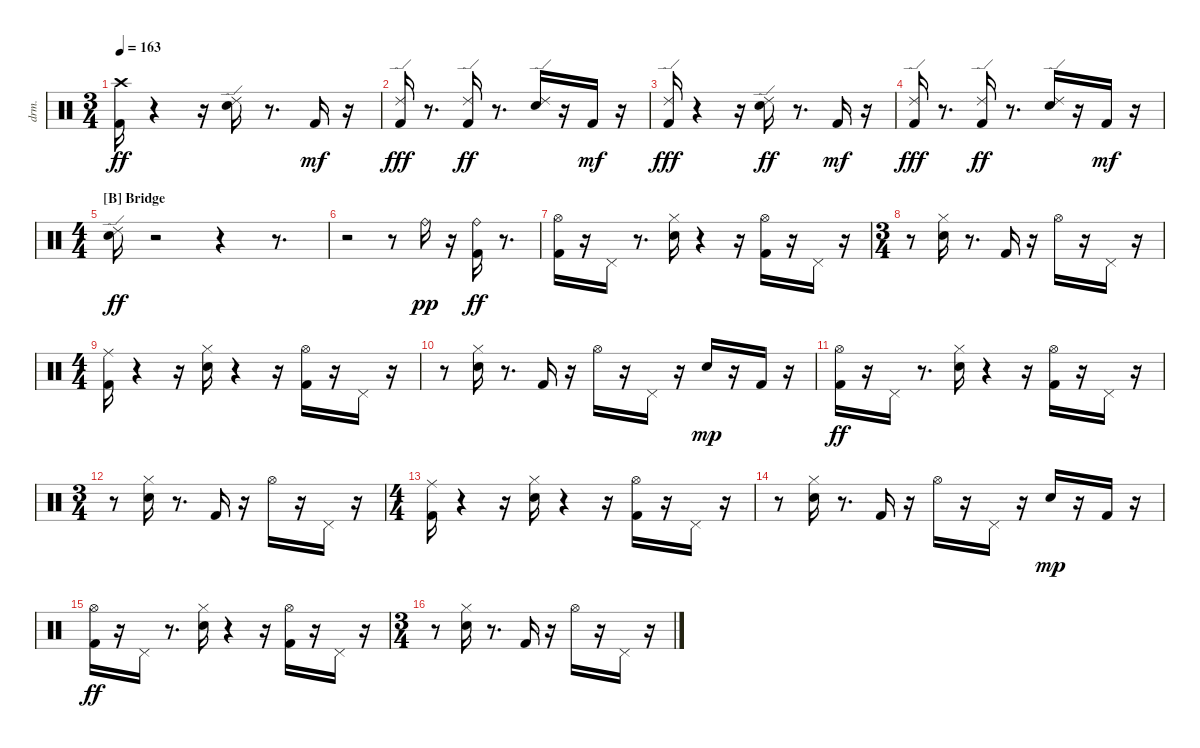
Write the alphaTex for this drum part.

\bracketExtendMode nobrackets
\track ("EZdrummer 3" "drm.") {instrument percussion}
\staff {score}
\articulation defaults
\ts (3 4)
\tempo 163
\clef neutral
\ks aminor
("Kick (hit) 2" "Crash high (hit)"{acc #}).16{dy ff beam Down} r.4{beam Down} r.16{beam Down} ("Snare (hit) 2" "Ride (edge) 2").16{beam Down} r.8{d beam Down} "Kick (hit) 2".16{dy mf beam Up} r.16{beam Down} |
("Kick (hit) 2" "Ride (edge) 2").16{dy fff beam Up} r.8{d beam Down} ("Kick (hit) 2" "Ride (edge) 2").16{dy ff beam Up} r.8{d beam Down} ("Snare (hit) 2" "Ride (edge) 2").16{beam Up} r.16{beam Up} "Kick (hit) 2".16{dy mf beam Up} r.16{beam Down} |
("Kick (hit) 2" "Ride (edge) 2").16{dy fff beam Up} r.4{beam Down} r.16{beam Down} ("Snare (hit) 2" "Ride (edge) 2").16{dy ff beam Down} r.8{d beam Down} "Kick (hit) 2".16{dy mf beam Up} r.16{beam Down} |
("Kick (hit) 2" "Ride (edge) 2").16{dy fff beam Up} r.8{d beam Down} ("Kick (hit) 2" "Ride (edge) 2").16{dy ff beam Up} r.8{d beam Down} ("Snare (hit) 2" "Ride (edge) 2").16{beam Up} r.16{beam Up} "Kick (hit) 2".16{dy mf beam Up} r.16{beam Down} |
\ts (4 4)
\section ("B" "Bridge")
("Snare (hit) 2" "Ride (edge) 2").16{dy ff beam Down} r.2{beam Down} r.4{beam Down} r.8{d beam Down} |
r.2{beam Down} r.8{beam Down} "Ride (bell)".16{dy pp beam Down} r.16{beam Down} ("Kick (hit) 2" "Ride (bell)").16{dy ff beam Down} r.8{d beam Down} |
("Kick (hit) 2" "Hi-Hat (open)"{acc #}).16{beam Down} r.16{beam Down} "Pedal Hi-Hat (hit)"{acc #}.16{beam Down} r.8{d beam Down} ("Snare (hit) 2" "Hi-Hat (closed)"{acc #}).16{beam Down} r.4{beam Down} r.16{beam Down} ("Kick (hit) 2" "Hi-Hat (open)"{acc #}).16{beam Down} r.16{beam Down} "Pedal Hi-Hat (hit)"{acc #}.16{beam Down} r.16{beam Down} |
\ts (3 4)
r.8{beam Down} ("Snare (hit) 2" "Hi-Hat (closed)"{acc #}).16{beam Down} r.8{d beam Down} "Kick (hit) 2".16{beam Up} r.16{beam Down} "Hi-Hat (open)"{acc #}.16{beam Down} r.16{beam Down} "Pedal Hi-Hat (hit)"{acc #}.16{beam Down} r.16{beam Down} |
\ts (4 4)
("Kick (hit) 2" "Ride (middle)"{acc #}).16{beam Down} r.4{beam Down} r.16{beam Down} ("Snare (hit) 2" "Hi-Hat (closed)"{acc #}).16{beam Down} r.4{beam Down} r.16{beam Down} ("Kick (hit) 2" "Hi-Hat (open)"{acc #}).16{beam Down} r.16{beam Down} "Pedal Hi-Hat (hit)"{acc #}.16{beam Down} r.16{beam Down} |
r.8{beam Down} ("Snare (hit) 2" "Hi-Hat (closed)"{acc #}).16{beam Down} r.8{d beam Down} "Kick (hit) 2".16{beam Up} r.16{beam Down} "Hi-Hat (open)"{acc #}.16{beam Down} r.16{beam Down} "Pedal Hi-Hat (hit)"{acc #}.16{beam Down} r.16{beam Down} "Snare (hit) 2".16{dy mp beam Up} r.16{beam Up} "Kick (hit) 2".16{beam Up} r.16{beam Down} |
("Kick (hit) 2" "Hi-Hat (open)"{acc #}).16{dy ff beam Down} r.16{beam Down} "Pedal Hi-Hat (hit)"{acc #}.16{beam Down} r.8{d beam Down} ("Snare (hit) 2" "Hi-Hat (closed)"{acc #}).16{beam Down} r.4{beam Down} r.16{beam Down} ("Kick (hit) 2" "Hi-Hat (open)"{acc #}).16{beam Down} r.16{beam Down} "Pedal Hi-Hat (hit)"{acc #}.16{beam Down} r.16{beam Down} |
\ts (3 4)
r.8{beam Down} ("Snare (hit) 2" "Hi-Hat (closed)"{acc #}).16{beam Down} r.8{d beam Down} "Kick (hit) 2".16{beam Up} r.16{beam Down} "Hi-Hat (open)"{acc #}.16{beam Down} r.16{beam Down} "Pedal Hi-Hat (hit)"{acc #}.16{beam Down} r.16{beam Down} |
\ts (4 4)
("Kick (hit) 2" "Ride (middle)"{acc #}).16{beam Down} r.4{beam Down} r.16{beam Down} ("Snare (hit) 2" "Hi-Hat (closed)"{acc #}).16{beam Down} r.4{beam Down} r.16{beam Down} ("Kick (hit) 2" "Hi-Hat (open)"{acc #}).16{beam Down} r.16{beam Down} "Pedal Hi-Hat (hit)"{acc #}.16{beam Down} r.16{beam Down} |
r.8{beam Down} ("Snare (hit) 2" "Hi-Hat (closed)"{acc #}).16{beam Down} r.8{d beam Down} "Kick (hit) 2".16{beam Up} r.16{beam Down} "Hi-Hat (open)"{acc #}.16{beam Down} r.16{beam Down} "Pedal Hi-Hat (hit)"{acc #}.16{beam Down} r.16{beam Down} "Snare (hit) 2".16{dy mp beam Up} r.16{beam Up} "Kick (hit) 2".16{beam Up} r.16{beam Down} |
("Kick (hit) 2" "Hi-Hat (open)"{acc #}).16{dy ff beam Down} r.16{beam Down} "Pedal Hi-Hat (hit)"{acc #}.16{beam Down} r.8{d beam Down} ("Snare (hit) 2" "Hi-Hat (closed)"{acc #}).16{beam Down} r.4{beam Down} r.16{beam Down} ("Kick (hit) 2" "Hi-Hat (open)"{acc #}).16{beam Down} r.16{beam Down} "Pedal Hi-Hat (hit)"{acc #}.16{beam Down} r.16{beam Down} |
\ts (3 4)
r.8{beam Down} ("Snare (hit) 2" "Hi-Hat (closed)"{acc #}).16{beam Down} r.8{d beam Down} "Kick (hit) 2".16{beam Up} r.16{beam Down} "Hi-Hat (open)"{acc #}.16{beam Down} r.16{beam Down} "Pedal Hi-Hat (hit)"{acc #}.16{beam Down} r.16{beam Down}
